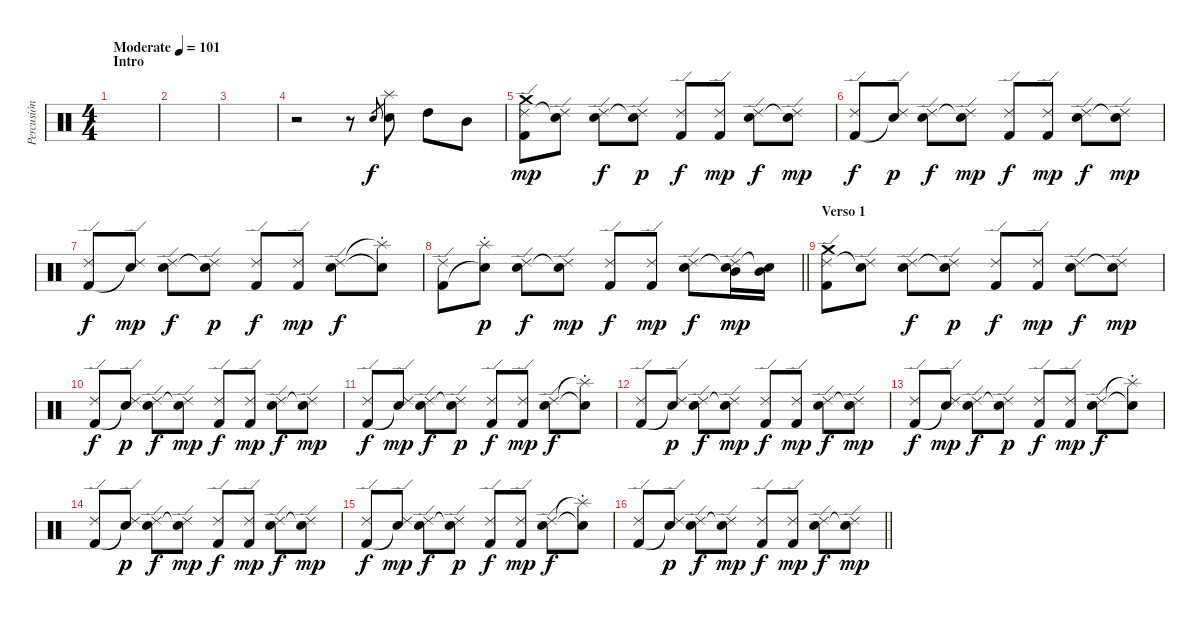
\track ("Percusión" "Percusión") {instrument percussion}
\staff {score}
\articulation defaults
\ts (4 4)
\section ("" "Intro")
\tempo (101 "Moderate")
\clef neutral
\ks c
|
|
|
r.2 r.8 "Snare (hit) 2".8{gr} ("Splash (hit)" "Electric Snare (hit)").8 "High Tom (hit)".8 "Mid Tom (hit)".8 |
("Crash medium (hit)" "Ride (edge) 2" "Kick (hit) 2").8{dy mp} ("Ride (edge) 2" "Snare (hit)"{t}).8 ("Ride (edge) 2" "Snare (hit) 2").8{dy f} ("Ride (edge) 2" "Snare (hit)"{t}).8{dy p} ("Ride (edge) 2" "Kick (hit) 2").8{dy f} ("Ride (edge) 2" "Kick (hit) 2").8{dy mp} ("Ride (edge) 2" "Snare (hit) 2").8{dy f} ("Ride (edge) 2" "Snare (hit)"{t}).8{dy mp} |
("Ride (edge) 2" "Kick (hit) 2").8{dy f} ("Ride (edge) 2" "Snare (hit)"{t}).8{dy p} ("Ride (edge) 2" "Snare (hit) 2").8{dy f} ("Ride (edge) 2" "Snare (hit)"{t}).8{dy mp} ("Ride (edge) 2" "Kick (hit) 2").8{dy f} ("Ride (edge) 2" "Kick (hit) 2").8{dy mp} ("Ride (edge) 2" "Snare (hit) 2").8{dy f} ("Ride (edge) 2" "Snare (hit)"{t}).8{dy mp} |
("Ride (edge) 2" "Kick (hit) 2").8{dy f} ("Ride (edge) 2" "Snare (hit)"{t}).8{dy mp} ("Ride (edge) 2" "Snare (hit) 2").8{dy f} ("Ride (edge) 2" "Snare (hit)"{t}).8{dy p} ("Ride (edge) 2" "Kick (hit) 2").8{dy f} ("Ride (edge) 2" "Kick (hit) 2").8{dy mp} ("Ride (edge) 2" "Snare (hit) 2").8{dy f} ("Splash (choke)"{t} "Snare (hit)"{t}).8 |
\barLineRight lightlight
("Ride (edge) 2" "Kick (hit) 2").8 ("Splash (choke)" "Snare (hit)"{t}).8{dy p} ("Ride (edge) 2" "Snare (hit) 2").8{dy f} ("Ride (edge) 2" "Snare (hit)"{t}).8{dy mp} ("Ride (edge) 2" "Kick (hit) 2").8{dy f} ("Ride (edge) 2" "Kick (hit) 2").8{dy mp} ("Ride (edge) 2" "Snare (hit) 2").8{dy f} ("Ride (edge) 2" "Snare (hit)"{t} "Mid Tom (hit)").16{dy mp} ("Snare (hit)"{t} "Mid Tom (hit)").16 |
\section ("" "Verso 1")
("Crash medium (hit)" "Ride (edge) 2" "Kick (hit) 2").8 ("Ride (edge) 2" "Snare (hit)"{t}).8 ("Ride (edge) 2" "Snare (hit) 2").8{dy f} ("Ride (edge) 2" "Snare (hit)"{t}).8{dy p} ("Ride (edge) 2" "Kick (hit) 2").8{dy f} ("Ride (edge) 2" "Kick (hit) 2").8{dy mp} ("Ride (edge) 2" "Snare (hit) 2").8{dy f} ("Ride (edge) 2" "Snare (hit)"{t}).8{dy mp} |
("Ride (edge) 2" "Kick (hit) 2").8{dy f} ("Ride (edge) 2" "Snare (hit)"{t}).8{dy p} ("Ride (edge) 2" "Snare (hit) 2").8{dy f} ("Ride (edge) 2" "Snare (hit)"{t}).8{dy mp} ("Ride (edge) 2" "Kick (hit) 2").8{dy f} ("Ride (edge) 2" "Kick (hit) 2").8{dy mp} ("Ride (edge) 2" "Snare (hit) 2").8{dy f} ("Ride (edge) 2" "Snare (hit)"{t}).8{dy mp} |
("Ride (edge) 2" "Kick (hit) 2").8{dy f} ("Ride (edge) 2" "Snare (hit)"{t}).8{dy mp} ("Ride (edge) 2" "Snare (hit) 2").8{dy f} ("Ride (edge) 2" "Snare (hit)"{t}).8{dy p} ("Ride (edge) 2" "Kick (hit) 2").8{dy f} ("Ride (edge) 2" "Kick (hit) 2").8{dy mp} ("Ride (edge) 2" "Snare (hit) 2").8{dy f} ("Splash (choke)"{t} "Snare (hit)"{t}).8 |
("Ride (edge) 2" "Kick (hit) 2").8 ("Ride (edge) 2" "Snare (hit)"{t}).8{dy p} ("Ride (edge) 2" "Snare (hit) 2").8{dy f} ("Ride (edge) 2" "Snare (hit)"{t}).8{dy mp} ("Ride (edge) 2" "Kick (hit) 2").8{dy f} ("Ride (edge) 2" "Kick (hit) 2").8{dy mp} ("Ride (edge) 2" "Snare (hit) 2").8{dy f} ("Ride (edge) 2" "Snare (hit)"{t}).8{dy mp} |
("Ride (edge) 2" "Kick (hit) 2").8{dy f} ("Ride (edge) 2" "Snare (hit)"{t}).8{dy mp} ("Ride (edge) 2" "Snare (hit) 2").8{dy f} ("Ride (edge) 2" "Snare (hit)"{t}).8{dy p} ("Ride (edge) 2" "Kick (hit) 2").8{dy f} ("Ride (edge) 2" "Kick (hit) 2").8{dy mp} ("Ride (edge) 2" "Snare (hit) 2").8{dy f} ("Splash (choke)"{t} "Snare (hit)"{t}).8 |
("Ride (edge) 2" "Kick (hit) 2").8 ("Ride (edge) 2" "Snare (hit)"{t}).8{dy p} ("Ride (edge) 2" "Snare (hit) 2").8{dy f} ("Ride (edge) 2" "Snare (hit)"{t}).8{dy mp} ("Ride (edge) 2" "Kick (hit) 2").8{dy f} ("Ride (edge) 2" "Kick (hit) 2").8{dy mp} ("Ride (edge) 2" "Snare (hit) 2").8{dy f} ("Ride (edge) 2" "Snare (hit)"{t}).8{dy mp} |
("Ride (edge) 2" "Kick (hit) 2").8{dy f} ("Ride (edge) 2" "Snare (hit)"{t}).8{dy mp} ("Ride (edge) 2" "Snare (hit) 2").8{dy f} ("Ride (edge) 2" "Snare (hit)"{t}).8{dy p} ("Ride (edge) 2" "Kick (hit) 2").8{dy f} ("Ride (edge) 2" "Kick (hit) 2").8{dy mp} ("Ride (edge) 2" "Snare (hit) 2").8{dy f} ("Splash (choke)"{t} "Snare (hit)"{t}).8 |
\barLineRight lightlight
("Ride (edge) 2" "Kick (hit) 2").8 ("Ride (edge) 2" "Snare (hit)"{t}).8{dy p} ("Ride (edge) 2" "Snare (hit) 2").8{dy f} ("Ride (edge) 2" "Snare (hit)"{t}).8{dy mp} ("Ride (edge) 2" "Kick (hit) 2").8{dy f} ("Ride (edge) 2" "Kick (hit) 2").8{dy mp} ("Ride (edge) 2" "Snare (hit) 2").8{dy f} ("Ride (edge) 2" "Snare (hit)"{t}).8{dy mp}
